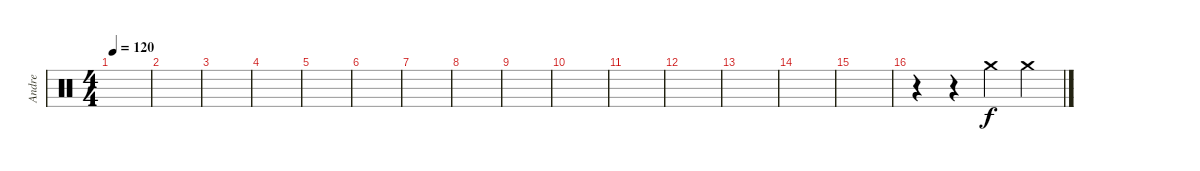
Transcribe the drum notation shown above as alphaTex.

\track ("Andre" "Andre") {instrument percussion}
\staff {score}
\articulation defaults
\ts (4 4)
\tempo 120
\clef neutral
\ks c
|
|
|
|
|
|
|
|
|
|
|
|
|
|
|
r.4 r.4 "Crash medium (hit)".4 "Crash medium (hit)".4
